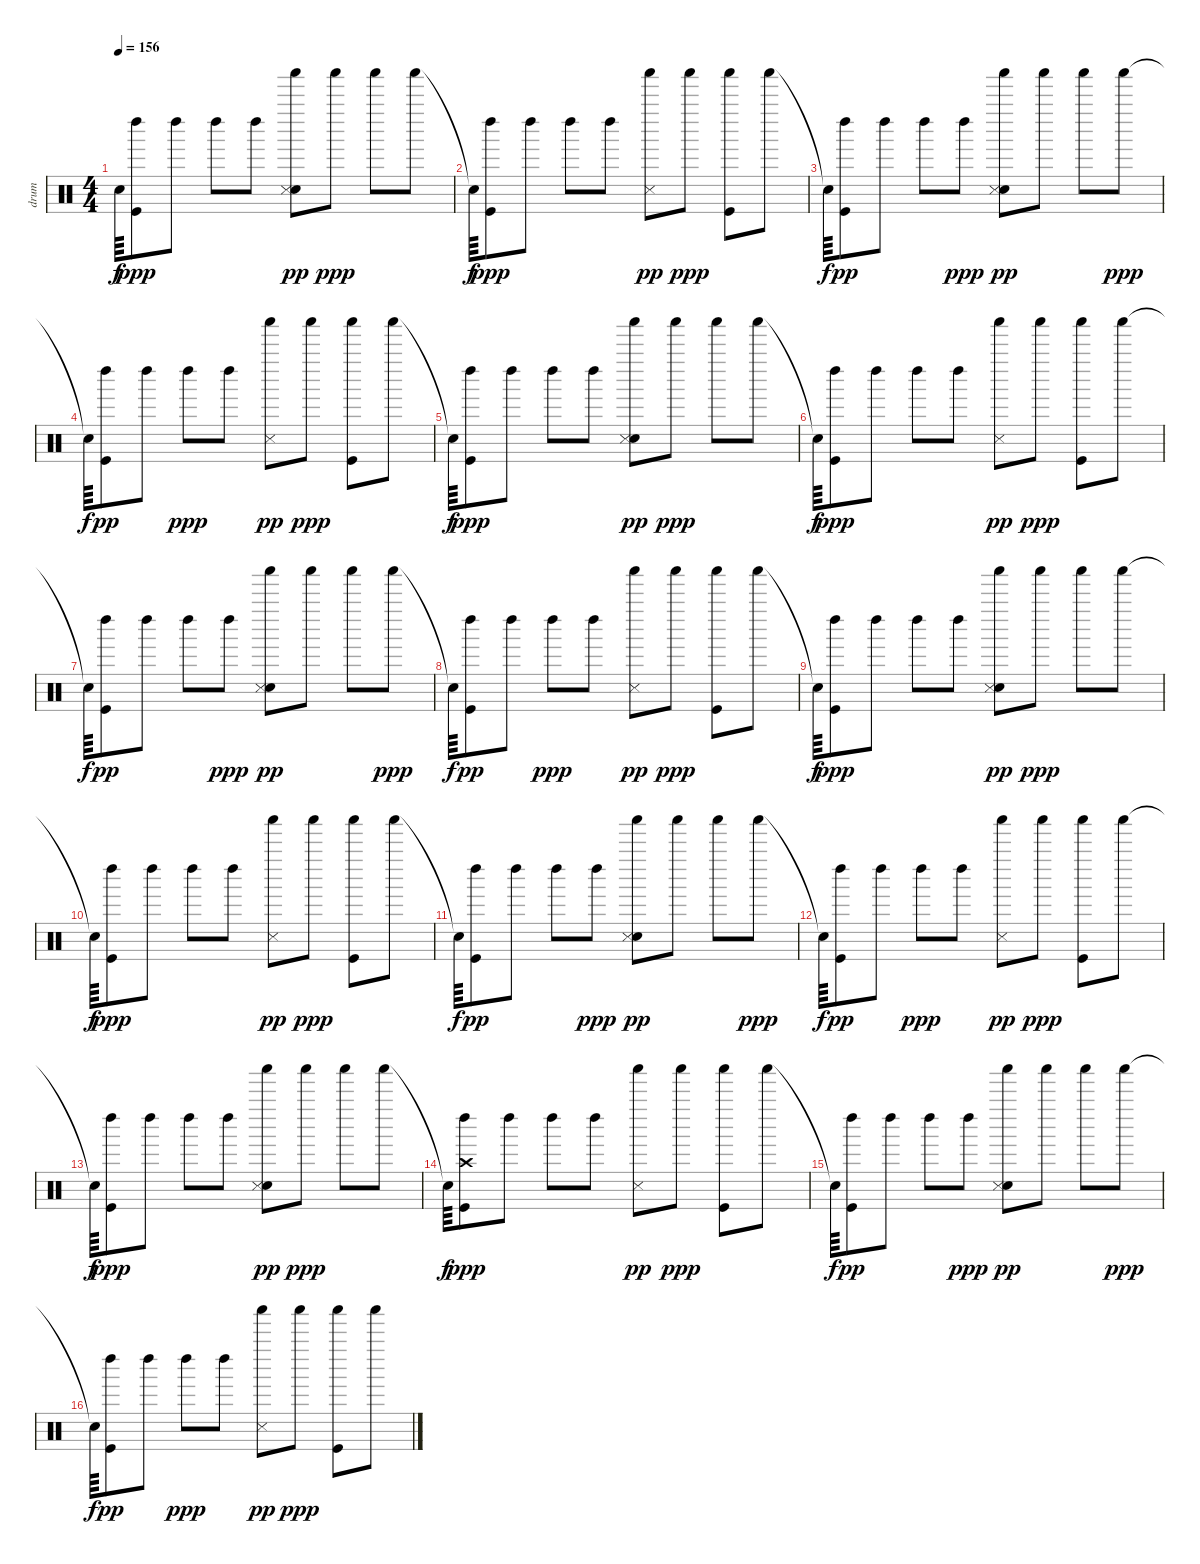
\track ("drum" "drum") {instrument percussion}
\staff {score}
\articulation defaults
\ts (4 4)
\tempo 156
\clef neutral
\ks c "Snare (hit)"{t}.64{dy f}
("Left Maraca (hit)" "Kick (hit)").8{dy ppp} "Left Maraca (hit)".8 "Left Maraca (hit)".8 "Left Maraca (hit)".8 ("Snare (hit) 2" "Shaker (hit)" "Snare (side stick) 3").8{dy pp} "Shaker (hit)".8{dy ppp} "Shaker (hit)".8 "Shaker (hit)".8 |
"Snare (hit)"{t}.64{dy f} ("Left Maraca (hit)" "Kick (hit)").8{dy ppp} "Left Maraca (hit)".8 "Left Maraca (hit)".8 "Left Maraca (hit)".8 ("Snare (side stick) 3" "Shaker (hit)").8{dy pp} "Shaker (hit)".8{dy ppp} ("Kick (hit)" "Shaker (hit)").8 "Shaker (hit)".8 |
"Snare (hit)"{t}.64{dy f} ("Left Maraca (hit)" "Kick (hit)").8{dy pp} "Left Maraca (hit)".8 "Left Maraca (hit)".8 "Left Maraca (hit)".8{dy ppp} ("Snare (hit) 2" "Snare (side stick) 3" "Shaker (hit)").8{dy pp} "Shaker (hit)".8 "Shaker (hit)".8 "Shaker (hit)".8{dy ppp} |
"Snare (hit)"{t}.64{dy f} ("Kick (hit)" "Left Maraca (hit)").8{dy pp} "Left Maraca (hit)".8 "Left Maraca (hit)".8{dy ppp} "Left Maraca (hit)".8 ("Snare (side stick) 3" "Shaker (hit)").8{dy pp} "Shaker (hit)".8{dy ppp} ("Kick (hit)" "Shaker (hit)").8 "Shaker (hit)".8 |
"Snare (hit)"{t}.64{dy f} ("Left Maraca (hit)" "Kick (hit)").8{dy ppp} "Left Maraca (hit)".8 "Left Maraca (hit)".8 "Left Maraca (hit)".8 ("Snare (hit) 2" "Shaker (hit)" "Snare (side stick) 3").8{dy pp} "Shaker (hit)".8{dy ppp} "Shaker (hit)".8 "Shaker (hit)".8 |
"Snare (hit)"{t}.64{dy f} ("Left Maraca (hit)" "Kick (hit)").8{dy ppp} "Left Maraca (hit)".8 "Left Maraca (hit)".8 "Left Maraca (hit)".8 ("Snare (side stick) 3" "Shaker (hit)").8{dy pp} "Shaker (hit)".8{dy ppp} ("Kick (hit)" "Shaker (hit)").8 "Shaker (hit)".8 |
"Snare (hit)"{t}.64{dy f} ("Left Maraca (hit)" "Kick (hit)").8{dy pp} "Left Maraca (hit)".8 "Left Maraca (hit)".8 "Left Maraca (hit)".8{dy ppp} ("Snare (hit) 2" "Snare (side stick) 3" "Shaker (hit)").8{dy pp} "Shaker (hit)".8 "Shaker (hit)".8 "Shaker (hit)".8{dy ppp} |
"Snare (hit)"{t}.64{dy f} ("Kick (hit)" "Left Maraca (hit)").8{dy pp} "Left Maraca (hit)".8 "Left Maraca (hit)".8{dy ppp} "Left Maraca (hit)".8 ("Snare (side stick) 3" "Shaker (hit)").8{dy pp} "Shaker (hit)".8{dy ppp} ("Kick (hit)" "Shaker (hit)").8 "Shaker (hit)".8 |
"Snare (hit)"{t}.64{dy f} ("Left Maraca (hit)" "Kick (hit)").8{dy ppp} "Left Maraca (hit)".8 "Left Maraca (hit)".8 "Left Maraca (hit)".8 ("Snare (hit) 2" "Shaker (hit)" "Snare (side stick) 3").8{dy pp} "Shaker (hit)".8{dy ppp} "Shaker (hit)".8 "Shaker (hit)".8 |
"Snare (hit)"{t}.64{dy f} ("Left Maraca (hit)" "Kick (hit)").8{dy ppp} "Left Maraca (hit)".8 "Left Maraca (hit)".8 "Left Maraca (hit)".8 ("Snare (side stick) 3" "Shaker (hit)").8{dy pp} "Shaker (hit)".8{dy ppp} ("Kick (hit)" "Shaker (hit)").8 "Shaker (hit)".8 |
"Snare (hit)"{t}.64{dy f} ("Left Maraca (hit)" "Kick (hit)").8{dy pp} "Left Maraca (hit)".8 "Left Maraca (hit)".8 "Left Maraca (hit)".8{dy ppp} ("Snare (hit) 2" "Snare (side stick) 3" "Shaker (hit)").8{dy pp} "Shaker (hit)".8 "Shaker (hit)".8 "Shaker (hit)".8{dy ppp} |
"Snare (hit)"{t}.64{dy f} ("Kick (hit)" "Left Maraca (hit)").8{dy pp} "Left Maraca (hit)".8 "Left Maraca (hit)".8{dy ppp} "Left Maraca (hit)".8 ("Snare (side stick) 3" "Shaker (hit)").8{dy pp} "Shaker (hit)".8{dy ppp} ("Kick (hit)" "Shaker (hit)").8 "Shaker (hit)".8 |
"Snare (hit)"{t}.64{dy f} ("Left Maraca (hit)" "Kick (hit)").8{dy ppp} "Left Maraca (hit)".8 "Left Maraca (hit)".8 "Left Maraca (hit)".8 ("Snare (hit) 2" "Shaker (hit)" "Snare (side stick) 3").8{dy pp} "Shaker (hit)".8{dy ppp} "Shaker (hit)".8 "Shaker (hit)".8 |
"Snare (hit)"{t}.64{dy f} ("Left Maraca (hit)" "Kick (hit)" "Crash high (hit)").8{dy ppp} "Left Maraca (hit)".8 "Left Maraca (hit)".8 "Left Maraca (hit)".8 ("Snare (side stick) 3" "Shaker (hit)").8{dy pp} "Shaker (hit)".8{dy ppp} ("Kick (hit)" "Shaker (hit)").8 "Shaker (hit)".8 |
"Snare (hit)"{t}.64{dy f} ("Left Maraca (hit)" "Kick (hit)").8{dy pp} "Left Maraca (hit)".8 "Left Maraca (hit)".8 "Left Maraca (hit)".8{dy ppp} ("Snare (hit) 2" "Snare (side stick) 3" "Shaker (hit)").8{dy pp} "Shaker (hit)".8 "Shaker (hit)".8 "Shaker (hit)".8{dy ppp} |
"Snare (hit)"{t}.64{dy f} ("Kick (hit)" "Left Maraca (hit)").8{dy pp} "Left Maraca (hit)".8 "Left Maraca (hit)".8{dy ppp} "Left Maraca (hit)".8 ("Snare (side stick) 3" "Shaker (hit)").8{dy pp} "Shaker (hit)".8{dy ppp} ("Kick (hit)" "Shaker (hit)").8 "Shaker (hit)".8
